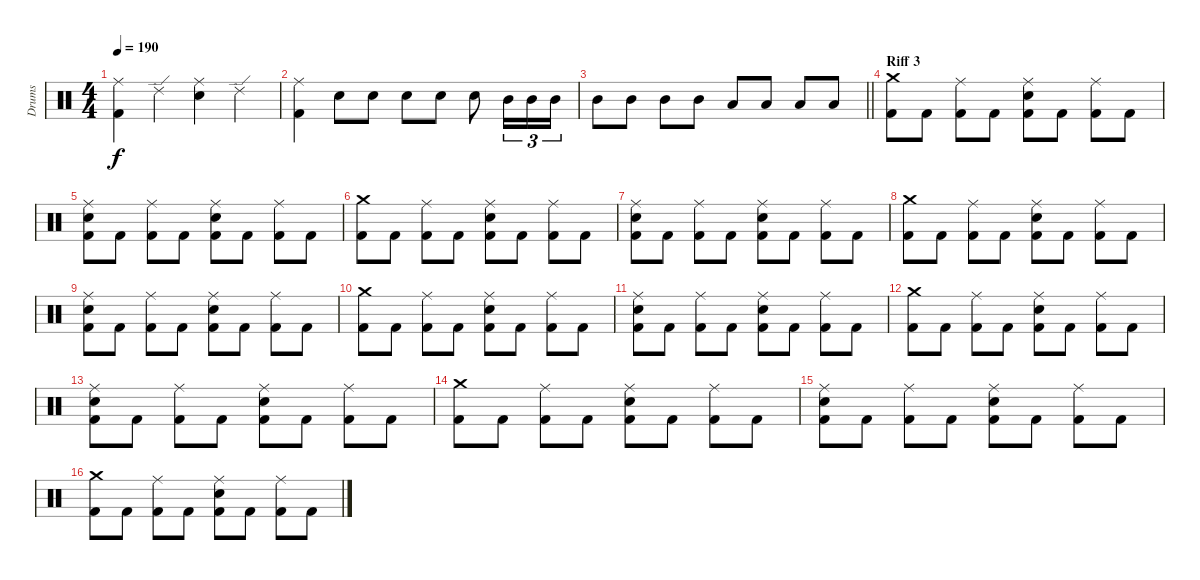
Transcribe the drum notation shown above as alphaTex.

\track ("Drums" "Drums") {instrument percussion}
\staff {score}
\articulation defaults
\ts (4 4)
\tempo 190
\clef neutral
\ks c
("Ride (middle)" "Kick (hit) 2").4{dy f} "Ride (edge) 2".4 ("Ride (middle)" "Snare (hit) 2").4 "Ride (edge) 2".4 |
("Ride (middle)" "Kick (hit) 2").4 "Snare (hit) 2".8 "Snare (hit) 2".8 "Snare (hit) 2".8 "Snare (hit) 2".8 "Snare (hit) 2".8 "Mid Tom (hit)".16{tu (3 2)} "Mid Tom (hit)".16{tu (3 2)} "Mid Tom (hit)".16{tu (3 2)} |
\barLineRight lightlight "Mid Tom (hit)".8 "Mid Tom (hit)".8 "Mid Tom (hit)".8 "Mid Tom (hit)".8 "Low Tom (hit)".8 "Low Tom (hit)".8 "Low Floor Tom (hit)".8 "Low Floor Tom (hit)".8
|
\section ("" "Riff 3")
("Crash medium (hit)" "Kick (hit) 2").8 "Kick (hit) 2".8 ("Ride (middle)" "Kick (hit) 2").8 "Kick (hit) 2".8 ("Ride (middle)" "Snare (hit) 2" "Kick (hit) 2").8 "Kick (hit) 2".8 ("Ride (middle)" "Kick (hit) 2").8 "Kick (hit) 2".8 |
("Ride (middle)" "Snare (hit) 2" "Kick (hit) 2").8 "Kick (hit) 2".8 ("Ride (middle)" "Kick (hit) 2").8 "Kick (hit) 2".8 ("Ride (middle)" "Snare (hit) 2" "Kick (hit) 2").8 "Kick (hit) 2".8 ("Ride (middle)" "Kick (hit) 2").8 "Kick (hit) 2".8 |
("Crash medium (hit)" "Kick (hit) 2").8 "Kick (hit) 2".8 ("Ride (middle)" "Kick (hit) 2").8 "Kick (hit) 2".8 ("Ride (middle)" "Snare (hit) 2" "Kick (hit) 2").8 "Kick (hit) 2".8 ("Ride (middle)" "Kick (hit) 2").8 "Kick (hit) 2".8 |
("Ride (middle)" "Snare (hit) 2" "Kick (hit) 2").8 "Kick (hit) 2".8 ("Ride (middle)" "Kick (hit) 2").8 "Kick (hit) 2".8 ("Ride (middle)" "Snare (hit) 2" "Kick (hit) 2").8 "Kick (hit) 2".8 ("Ride (middle)" "Kick (hit) 2").8 "Kick (hit) 2".8 |
("Crash medium (hit)" "Kick (hit) 2").8 "Kick (hit) 2".8 ("Ride (middle)" "Kick (hit) 2").8 "Kick (hit) 2".8 ("Ride (middle)" "Snare (hit) 2" "Kick (hit) 2").8 "Kick (hit) 2".8 ("Ride (middle)" "Kick (hit) 2").8 "Kick (hit) 2".8 |
("Ride (middle)" "Snare (hit) 2" "Kick (hit) 2").8 "Kick (hit) 2".8 ("Ride (middle)" "Kick (hit) 2").8 "Kick (hit) 2".8 ("Ride (middle)" "Snare (hit) 2" "Kick (hit) 2").8 "Kick (hit) 2".8 ("Ride (middle)" "Kick (hit) 2").8 "Kick (hit) 2".8 |
("Crash medium (hit)" "Kick (hit) 2").8 "Kick (hit) 2".8 ("Ride (middle)" "Kick (hit) 2").8 "Kick (hit) 2".8 ("Ride (middle)" "Snare (hit) 2" "Kick (hit) 2").8 "Kick (hit) 2".8 ("Ride (middle)" "Kick (hit) 2").8 "Kick (hit) 2".8 |
("Ride (middle)" "Snare (hit) 2" "Kick (hit) 2").8 "Kick (hit) 2".8 ("Ride (middle)" "Kick (hit) 2").8 "Kick (hit) 2".8 ("Ride (middle)" "Snare (hit) 2" "Kick (hit) 2").8 "Kick (hit) 2".8 ("Ride (middle)" "Kick (hit) 2").8 "Kick (hit) 2".8 |
("Crash medium (hit)" "Kick (hit) 2").8 "Kick (hit) 2".8 ("Ride (middle)" "Kick (hit) 2").8 "Kick (hit) 2".8 ("Ride (middle)" "Snare (hit) 2" "Kick (hit) 2").8 "Kick (hit) 2".8 ("Ride (middle)" "Kick (hit) 2").8 "Kick (hit) 2".8 |
("Ride (middle)" "Snare (hit) 2" "Kick (hit) 2").8 "Kick (hit) 2".8 ("Ride (middle)" "Kick (hit) 2").8 "Kick (hit) 2".8 ("Ride (middle)" "Snare (hit) 2" "Kick (hit) 2").8 "Kick (hit) 2".8 ("Ride (middle)" "Kick (hit) 2").8 "Kick (hit) 2".8 |
("Crash medium (hit)" "Kick (hit) 2").8 "Kick (hit) 2".8 ("Ride (middle)" "Kick (hit) 2").8 "Kick (hit) 2".8 ("Ride (middle)" "Snare (hit) 2" "Kick (hit) 2").8 "Kick (hit) 2".8 ("Ride (middle)" "Kick (hit) 2").8 "Kick (hit) 2".8 |
("Ride (middle)" "Snare (hit) 2" "Kick (hit) 2").8 "Kick (hit) 2".8 ("Ride (middle)" "Kick (hit) 2").8 "Kick (hit) 2".8 ("Ride (middle)" "Snare (hit) 2" "Kick (hit) 2").8 "Kick (hit) 2".8 ("Ride (middle)" "Kick (hit) 2").8 "Kick (hit) 2".8 |
("Crash medium (hit)" "Kick (hit) 2").8 "Kick (hit) 2".8 ("Ride (middle)" "Kick (hit) 2").8 "Kick (hit) 2".8 ("Ride (middle)" "Snare (hit) 2" "Kick (hit) 2").8 "Kick (hit) 2".8 ("Ride (middle)" "Kick (hit) 2").8 "Kick (hit) 2".8
